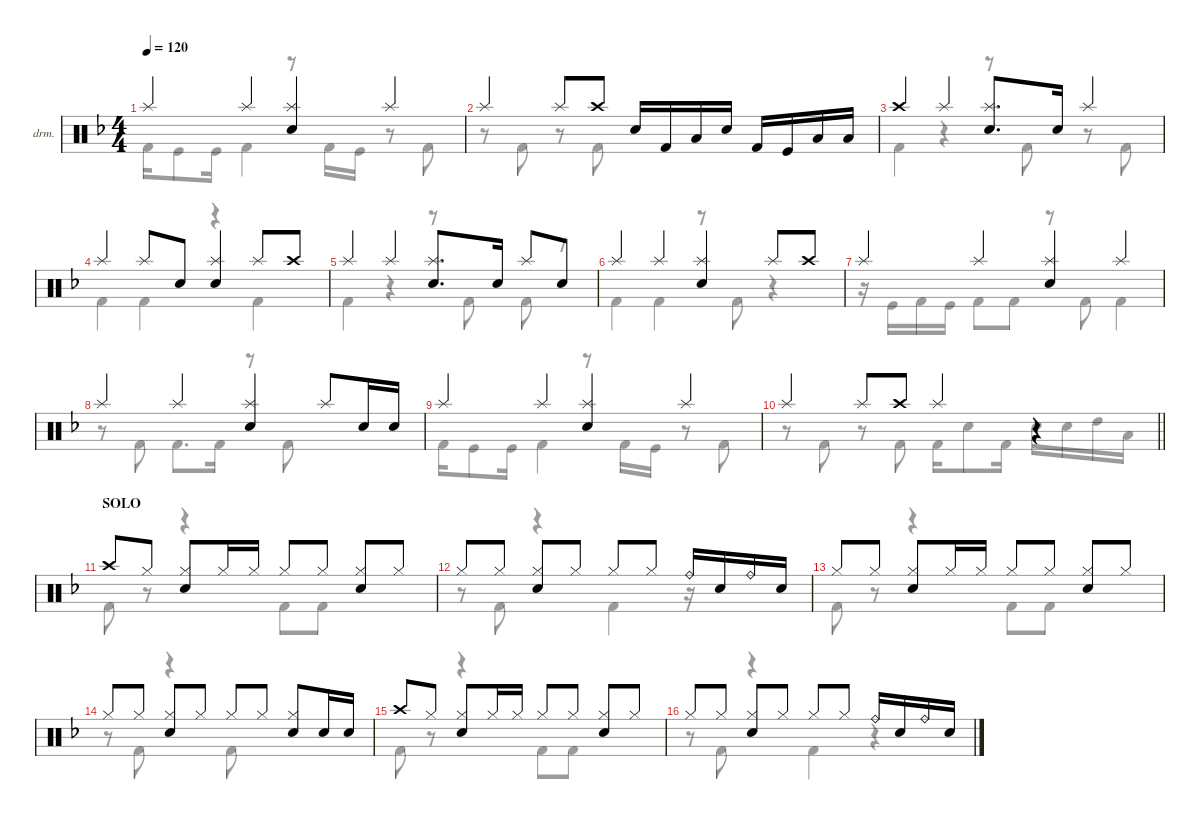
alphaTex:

\defaultSystemsLayout 4
\hideDynamics
\bracketExtendMode nobrackets
\firstSystemTrackNameOrientation horizontal
\track ("Drumkit" "drm.") {defaultSystemsLayout 4 instrument percussion}
\staff {score}
\articulation defaults
\voice
\ts (4 4)
\tempo 120
\clef neutral
\ks dminor "Splash (hit)"{acc forcenatural}.4{dy mf beam Up} "Splash (hit)"{acc forcenatural}.4{beam Up}
("Snare (hit) 2"{acc forcenatural} "Splash (hit)"{acc forcenatural}).4{beam Up} "Splash (hit)"{acc forcenatural}.4{beam Up} |
"Splash (hit)"{acc forcenatural}.4{beam Up} "Splash (hit)"{acc forcenatural}.8{beam Up} "Crash high (hit)"{acc forcenatural}.8{beam Up} "Snare (hit) 2"{acc forcenatural}.16{beam Up} "Kick (hit) 2"{acc forcenatural}.16{beam Up} "Low Tom (hit)"{acc forcenatural}.16{beam Up} "Snare (hit) 2"{acc forcenatural}.16{beam Up} "Kick (hit) 2"{acc forcenatural}.16{beam Up} "Kick (hit)"{acc forcenatural}.16{beam Up} "Low Tom (hit)"{acc forcenatural}.16{beam Up} "Low Tom (hit)"{acc forcenatural}.16{beam Up} |
"Crash high (hit)"{acc forcenatural}.4{beam Up} "Splash (hit)"{acc forcenatural}.4{beam Up} ("Snare (hit) 2"{acc forcenatural} "Splash (hit)"{acc forcenatural}).8{d beam Up} "Snare (hit) 2"{acc forcenatural}.16{beam Up} "Splash (hit)"{acc forcenatural}.4{beam Up} |
"Splash (hit)"{acc forcenatural}.4{beam Up} "Splash (hit)"{acc forcenatural}.8{beam Up} "Snare (hit) 2"{acc forcenatural}.8{beam Up} ("Snare (hit) 2"{acc forcenatural} "Splash (hit)"{acc forcenatural}).4{beam Up} "Splash (hit)"{acc forcenatural}.8{beam Up} "Crash high (hit)"{acc forcenatural}.8{beam Up} |
"Splash (hit)"{acc forcenatural}.4{beam Up} "Splash (hit)"{acc forcenatural}.4{beam Up} ("Snare (hit) 2"{acc forcenatural} "Splash (hit)"{acc forcenatural}).8{d beam Up} "Snare (hit) 2"{acc forcenatural}.16{beam Up} "Splash (hit)"{acc forcenatural}.8{beam Up} "Snare (hit) 2"{acc forcenatural}.8{beam Up} |
"Splash (hit)"{acc forcenatural}.4{beam Up} "Splash (hit)"{acc forcenatural}.4{beam Up} ("Snare (hit) 2"{acc forcenatural} "Splash (hit)"{acc forcenatural}).4{beam Up} "Splash (hit)"{acc forcenatural}.8{beam Up} "Crash high (hit)"{acc forcenatural}.8{beam Up} |
"Splash (hit)"{acc forcenatural}.4{beam Up} "Splash (hit)"{acc forcenatural}.4{beam Up} ("Snare (hit) 2"{acc forcenatural} "Splash (hit)"{acc forcenatural}).4{beam Up} "Splash (hit)"{acc forcenatural}.4{beam Up} |
"Splash (hit)"{acc forcenatural}.4{beam Up} "Splash (hit)"{acc forcenatural}.4{beam Up} ("Snare (hit) 2"{acc forcenatural} "Splash (hit)"{acc forcenatural}).4{beam Up} "Splash (hit)"{acc forcenatural}.8{beam Up} "Snare (hit) 2"{acc forcenatural}.16{beam Up} "Snare (hit) 2"{acc forcenatural}.16{beam Up} |
"Splash (hit)"{acc forcenatural}.4{beam Up} "Splash (hit)"{acc forcenatural}.4{beam Up} ("Snare (hit) 2"{acc forcenatural} "Splash (hit)"{acc forcenatural}).4{beam Up} "Splash (hit)"{acc forcenatural}.4{beam Up} |
\barLineRight lightlight "Splash (hit)"{acc forcenatural}.4{beam Up} "Splash (hit)"{acc forcenatural}.8{beam Up} "Crash high (hit)"{acc forcenatural}.8{beam Up} "Splash (hit)"{acc forcenatural}.4{beam Up}
r.4{beam Up} |
\section ("" "SOLO")
"Crash high (hit)"{acc forcenatural}.8{beam Up} "Hi-Hat (closed)"{acc forcenatural}.8{beam Up} ("Hi-Hat (closed)"{acc forcenatural} "Snare (hit) 2"{acc forcenatural}).8{beam Up} "Hi-Hat (closed)"{acc forcenatural}.16{beam Up} "Hi-Hat (closed)"{acc forcenatural}.16{beam Up} "Hi-Hat (closed)"{acc forcenatural}.8{beam Up} "Hi-Hat (closed)"{acc forcenatural}.8{beam Up} ("Hi-Hat (closed)"{acc forcenatural} "Snare (hit) 2"{acc forcenatural}).8{beam Up} "Hi-Hat (closed)"{acc forcenatural}.8{beam Up} |
"Hi-Hat (closed)"{acc forcenatural}.8{beam Up} "Hi-Hat (closed)"{acc forcenatural}.8{beam Up} ("Hi-Hat (closed)"{acc forcenatural} "Snare (hit) 2"{acc forcenatural}).8{beam Up} "Hi-Hat (closed)"{acc forcenatural}.8{beam Up} "Hi-Hat (closed)"{acc forcenatural}.8{beam Up} "Hi-Hat (closed)"{acc forcenatural}.8{beam Up} "Ride (bell)"{acc forcenatural}.16{beam Up} "Snare (hit) 2"{acc forcenatural}.16{beam Up} "Ride (bell)"{acc forcenatural}.16{beam Up} "Snare (hit) 2"{acc forcenatural}.16{beam Up} |
"Hi-Hat (closed)"{acc forcenatural}.8{beam Up} "Hi-Hat (closed)"{acc forcenatural}.8{beam Up} ("Hi-Hat (closed)"{acc forcenatural} "Snare (hit) 2"{acc forcenatural}).8{beam Up} "Hi-Hat (closed)"{acc forcenatural}.16{beam Up} "Hi-Hat (closed)"{acc forcenatural}.16{beam Up} "Hi-Hat (closed)"{acc forcenatural}.8{beam Up} "Hi-Hat (closed)"{acc forcenatural}.8{beam Up} ("Hi-Hat (closed)"{acc forcenatural} "Snare (hit) 2"{acc forcenatural}).8{beam Up} "Hi-Hat (closed)"{acc forcenatural}.8{beam Up} |
"Hi-Hat (closed)"{acc forcenatural}.8{beam Up} "Hi-Hat (closed)"{acc forcenatural}.8{beam Up} ("Hi-Hat (closed)"{acc forcenatural} "Snare (hit) 2"{acc forcenatural}).8{beam Up} "Hi-Hat (closed)"{acc forcenatural}.8{beam Up} "Hi-Hat (closed)"{acc forcenatural}.8{beam Up} "Hi-Hat (closed)"{acc forcenatural}.8{beam Up} ("Hi-Hat (closed)"{acc forcenatural} "Snare (hit) 2"{acc forcenatural}).8{beam Up} "Snare (hit) 2"{acc forcenatural}.16{beam Up} "Snare (hit) 2"{acc forcenatural}.16{beam Up} |
"Crash high (hit)"{acc forcenatural}.8{beam Up} "Hi-Hat (closed)"{acc forcenatural}.8{beam Up} ("Hi-Hat (closed)"{acc forcenatural} "Snare (hit) 2"{acc forcenatural}).8{beam Up} "Hi-Hat (closed)"{acc forcenatural}.16{beam Up} "Hi-Hat (closed)"{acc forcenatural}.16{beam Up} "Hi-Hat (closed)"{acc forcenatural}.8{beam Up} "Hi-Hat (closed)"{acc forcenatural}.8{beam Up} ("Hi-Hat (closed)"{acc forcenatural} "Snare (hit) 2"{acc forcenatural}).8{beam Up} "Hi-Hat (closed)"{acc forcenatural}.8{beam Up} |
"Hi-Hat (closed)"{acc forcenatural}.8{beam Up} "Hi-Hat (closed)"{acc forcenatural}.8{beam Up} ("Hi-Hat (closed)"{acc forcenatural} "Snare (hit) 2"{acc forcenatural}).8{beam Up} "Hi-Hat (closed)"{acc forcenatural}.8{beam Up} "Hi-Hat (closed)"{acc forcenatural}.8{beam Up} "Hi-Hat (closed)"{acc forcenatural}.8{beam Up} "Ride (bell)"{acc forcenatural}.16{beam Up} "Snare (hit) 2"{acc forcenatural}.16{beam Up} "Ride (bell)"{acc forcenatural}.16{beam Up} "Snare (hit) 2"{acc forcenatural}.16{beam Up}
\voice
\clef neutral
\ottava regular
\simile none
\ks dminor "Kick (hit) 2"{acc forcenatural}.16{dy mf beam Down} "Kick (hit)"{acc forcenatural}.8{beam Down} "Kick (hit)"{acc forcenatural}.16{beam Down} "Kick (hit) 2"{acc forcenatural}.4{beam Down}
r.8{beam Down} "Kick (hit) 2"{acc forcenatural}.16{beam Down} "Kick (hit)"{acc forcenatural}.16{beam Down} r.8{beam Down} "Kick (hit) 2"{acc forcenatural}.8{beam Down} |
r.8{beam Down} "Kick (hit) 2"{acc forcenatural}.8{beam Down} r.8{beam Down} "Kick (hit) 2"{acc forcenatural}.8{beam Down} |
"Kick (hit) 2"{acc forcenatural}.4{beam Down} r.4{beam Down} r.8{beam Down} "Kick (hit) 2"{acc forcenatural}.8{beam Down} r.8{beam Down} "Kick (hit) 2"{acc forcenatural}.8{beam Down} |
"Kick (hit) 2"{acc forcenatural}.4{beam Down} "Kick (hit) 2"{acc forcenatural}.4{beam Down} r.4{beam Down} "Kick (hit) 2"{acc forcenatural}.4{beam Down} |
"Kick (hit) 2"{acc forcenatural}.4{beam Down} r.4{beam Down} r.8{beam Down} "Kick (hit) 2"{acc forcenatural}.8{beam Down} "Kick (hit) 2"{acc forcenatural}.8{beam Down} r.8{beam Down} |
"Kick (hit) 2"{acc forcenatural}.4{beam Down} "Kick (hit) 2"{acc forcenatural}.4{beam Down} r.8{beam Down} "Kick (hit) 2"{acc forcenatural}.8{beam Down} r.4{beam Down} |
r.16{beam Down} "Kick (hit)"{acc forcenatural}.16{beam Down} "Kick (hit) 2"{acc forcenatural}.16{beam Down} "Kick (hit)"{acc forcenatural}.16{beam Down} "Kick (hit) 2"{acc forcenatural}.8{beam Down} "Kick (hit) 2"{acc forcenatural}.8{beam Down} r.8{beam Down} "Kick (hit) 2"{acc forcenatural}.8{beam Down} "Kick (hit) 2"{acc forcenatural}.4{beam Down} |
r.8{beam Down} "Kick (hit) 2"{acc forcenatural}.8{beam Down} "Kick (hit) 2"{acc forcenatural}.8{d beam Down} "Kick (hit) 2"{acc forcenatural}.16{beam Down} r.8{beam Down} "Kick (hit) 2"{acc forcenatural}.8{beam Down} |
"Kick (hit) 2"{acc forcenatural}.16{beam Down} "Kick (hit)"{acc forcenatural}.8{beam Down} "Kick (hit)"{acc forcenatural}.16{beam Down} "Kick (hit) 2"{acc forcenatural}.4{beam Down} r.8{beam Down} "Kick (hit) 2"{acc forcenatural}.16{beam Down} "Kick (hit)"{acc forcenatural}.16{beam Down} r.8{beam Down} "Kick (hit) 2"{acc forcenatural}.8{beam Down} |
\barLineRight lightlight
r.8{beam Down} "Kick (hit) 2"{acc forcenatural}.8{beam Down} r.8{beam Down} "Kick (hit) 2"{acc forcenatural}.8{beam Down} "Kick (hit) 2"{acc forcenatural}.16{beam Down} "Snare (hit) 2"{acc forcenatural}.8{beam Down} "Kick (hit) 2"{acc forcenatural}.16{beam Down} "Snare (hit) 2"{acc forcenatural}.16{beam Down} "Snare (hit) 2"{acc forcenatural}.16{beam Down} "High Tom (hit)"{acc forcenatural}.16{beam Down} "Low Tom (hit)"{acc forcenatural}.16{beam Down} |
"Kick (hit) 2"{acc forcenatural}.8{beam Down} r.8{beam Down} r.4{beam Down} "Kick (hit) 2"{acc forcenatural}.8{beam Down} "Kick (hit) 2"{acc forcenatural}.8{beam Down} |
r.8{beam Down} "Kick (hit) 2"{acc forcenatural}.8{beam Down} r.4{beam Down} "Kick (hit) 2"{acc forcenatural}.4{beam Down} r.16{beam Down} |
"Kick (hit) 2"{acc forcenatural}.8{beam Down} r.8{beam Down} r.4{beam Down} "Kick (hit) 2"{acc forcenatural}.8{beam Down} "Kick (hit) 2"{acc forcenatural}.8{beam Down} |
r.8{beam Down} "Kick (hit) 2"{acc forcenatural}.8{beam Down} r.4{beam Down} "Kick (hit) 2"{acc forcenatural}.8{beam Down} |
"Kick (hit) 2"{acc forcenatural}.8{beam Down} r.8{beam Down} r.4{beam Down} "Kick (hit) 2"{acc forcenatural}.8{beam Down} "Kick (hit) 2"{acc forcenatural}.8{beam Down} |
r.8{beam Down} "Kick (hit) 2"{acc forcenatural}.8{beam Down} r.4{beam Down} "Kick (hit) 2"{acc forcenatural}.4{beam Down} r.4{beam Down}
